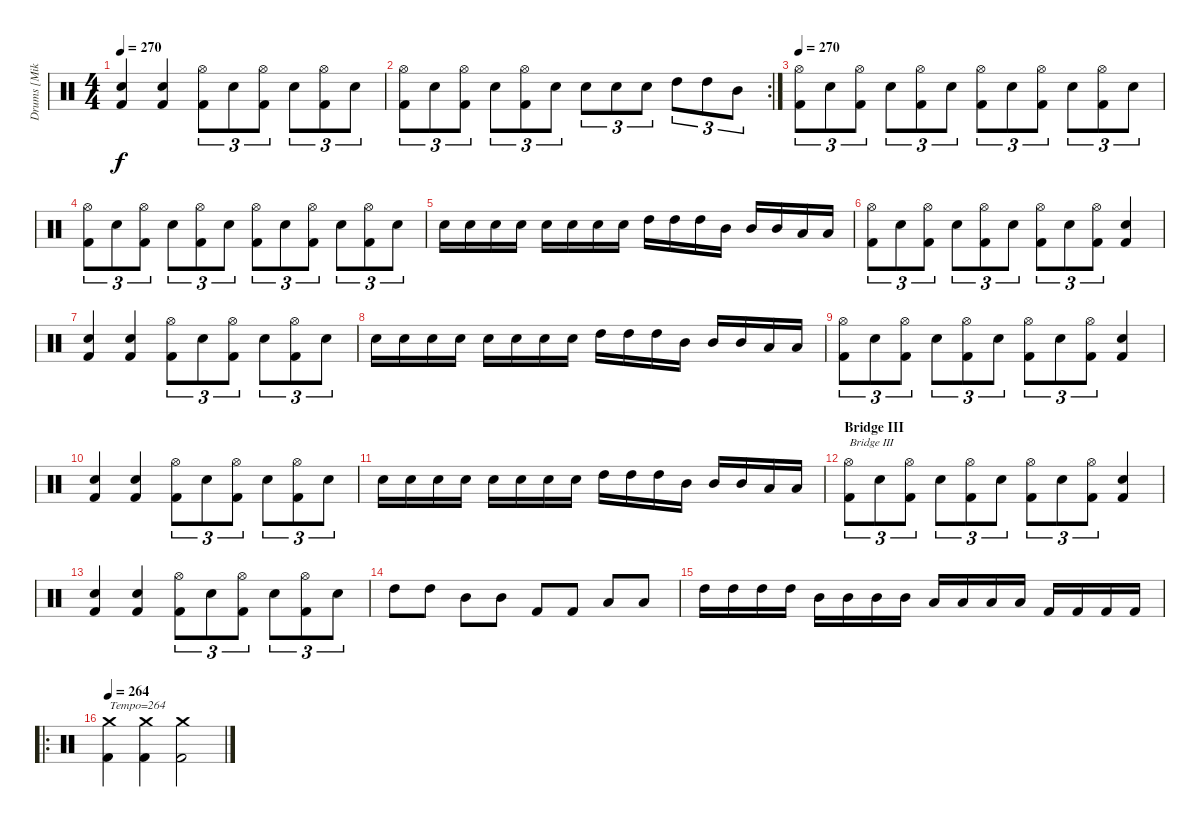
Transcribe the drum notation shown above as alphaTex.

\track ("Drums [Mike Smith]" "Drums [Mik") {instrument percussion}
\staff {score}
\articulation defaults
\ts (4 4)
\tempo 270
\clef neutral
\ks c
("Electric Snare (hit)" "Kick (hit) 2").4{dy f} ("Electric Snare (hit)" "Kick (hit) 2").4 ("Hi-Hat (open)" "Kick (hit) 2").8{tu (3 2)} "Electric Snare (hit)".8{tu (3 2)} ("Hi-Hat (open)" "Kick (hit) 2").8{tu (3 2)} "Electric Snare (hit)".8{tu (3 2)} ("Hi-Hat (open)" "Kick (hit) 2").8{tu (3 2)} "Electric Snare (hit)".8{tu (3 2)} |
\rc 2
("Hi-Hat (open)" "Kick (hit) 2").8{tu (3 2)} "Electric Snare (hit)".8{tu (3 2)} ("Hi-Hat (open)" "Kick (hit) 2").8{tu (3 2)} "Electric Snare (hit)".8{tu (3 2)} ("Hi-Hat (open)" "Kick (hit) 2").8{tu (3 2)} "Electric Snare (hit)".8{tu (3 2)} "Electric Snare (hit)".8{tu (3 2)} "Electric Snare (hit)".8{tu (3 2)} "Electric Snare (hit)".8{tu (3 2)} "High Tom (hit)".8{tu (3 2)} "High Tom (hit)".8{tu (3 2)} "Mid Tom (hit)".8{tu (3 2)} |
\tempo 270
("Hi-Hat (open)" "Kick (hit) 2").8{tu (3 2)} "Electric Snare (hit)".8{tu (3 2)} ("Hi-Hat (open)" "Kick (hit) 2").8{tu (3 2)} "Electric Snare (hit)".8{tu (3 2)} ("Hi-Hat (open)" "Kick (hit) 2").8{tu (3 2)} "Electric Snare (hit)".8{tu (3 2)} ("Hi-Hat (open)" "Kick (hit) 2").8{tu (3 2)} "Electric Snare (hit)".8{tu (3 2)} ("Hi-Hat (open)" "Kick (hit) 2").8{tu (3 2)} "Electric Snare (hit)".8{tu (3 2)} ("Hi-Hat (open)" "Kick (hit) 2").8{tu (3 2)} "Electric Snare (hit)".8{tu (3 2)} |
("Hi-Hat (open)" "Kick (hit) 2").8{tu (3 2)} "Electric Snare (hit)".8{tu (3 2)} ("Hi-Hat (open)" "Kick (hit) 2").8{tu (3 2)} "Electric Snare (hit)".8{tu (3 2)} ("Hi-Hat (open)" "Kick (hit) 2").8{tu (3 2)} "Electric Snare (hit)".8{tu (3 2)} ("Hi-Hat (open)" "Kick (hit) 2").8{tu (3 2)} "Electric Snare (hit)".8{tu (3 2)} ("Hi-Hat (open)" "Kick (hit) 2").8{tu (3 2)} "Electric Snare (hit)".8{tu (3 2)} ("Hi-Hat (open)" "Kick (hit) 2").8{tu (3 2)} "Electric Snare (hit)".8{tu (3 2)} |
"Electric Snare (hit)".16 "Electric Snare (hit)".16 "Electric Snare (hit)".16 "Electric Snare (hit)".16 "Electric Snare (hit)".16 "Electric Snare (hit)".16 "Electric Snare (hit)".16 "Electric Snare (hit)".16 "High Tom (hit)".16 "High Tom (hit)".16 "High Tom (hit)".16 "Mid Tom (hit)".16 "Mid Tom (hit)".16 "Mid Tom (hit)".16 "Low Tom (hit)".16 "Low Tom (hit)".16 |
("Hi-Hat (open)" "Kick (hit) 2").8{tu (3 2)} "Electric Snare (hit)".8{tu (3 2)} ("Hi-Hat (open)" "Kick (hit) 2").8{tu (3 2)} "Electric Snare (hit)".8{tu (3 2)} ("Hi-Hat (open)" "Kick (hit) 2").8{tu (3 2)} "Electric Snare (hit)".8{tu (3 2)} ("Hi-Hat (open)" "Kick (hit) 2").8{tu (3 2)} "Electric Snare (hit)".8{tu (3 2)} ("Hi-Hat (open)" "Kick (hit) 2").8{tu (3 2)} ("Electric Snare (hit)" "Kick (hit) 2").4 |
("Electric Snare (hit)" "Kick (hit) 2").4 ("Electric Snare (hit)" "Kick (hit) 2").4 ("Hi-Hat (open)" "Kick (hit) 2").8{tu (3 2)} "Electric Snare (hit)".8{tu (3 2)} ("Hi-Hat (open)" "Kick (hit) 2").8{tu (3 2)} "Electric Snare (hit)".8{tu (3 2)} ("Hi-Hat (open)" "Kick (hit) 2").8{tu (3 2)} "Electric Snare (hit)".8{tu (3 2)} |
"Electric Snare (hit)".16 "Electric Snare (hit)".16 "Electric Snare (hit)".16 "Electric Snare (hit)".16 "Electric Snare (hit)".16 "Electric Snare (hit)".16 "Electric Snare (hit)".16 "Electric Snare (hit)".16 "High Tom (hit)".16 "High Tom (hit)".16 "High Tom (hit)".16 "Mid Tom (hit)".16 "Mid Tom (hit)".16 "Mid Tom (hit)".16 "Low Tom (hit)".16 "Low Tom (hit)".16 |
("Hi-Hat (open)" "Kick (hit) 2").8{tu (3 2)} "Electric Snare (hit)".8{tu (3 2)} ("Hi-Hat (open)" "Kick (hit) 2").8{tu (3 2)} "Electric Snare (hit)".8{tu (3 2)} ("Hi-Hat (open)" "Kick (hit) 2").8{tu (3 2)} "Electric Snare (hit)".8{tu (3 2)} ("Hi-Hat (open)" "Kick (hit) 2").8{tu (3 2)} "Electric Snare (hit)".8{tu (3 2)} ("Hi-Hat (open)" "Kick (hit) 2").8{tu (3 2)} ("Electric Snare (hit)" "Kick (hit) 2").4 |
("Electric Snare (hit)" "Kick (hit) 2").4 ("Electric Snare (hit)" "Kick (hit) 2").4 ("Hi-Hat (open)" "Kick (hit) 2").8{tu (3 2)} "Electric Snare (hit)".8{tu (3 2)} ("Hi-Hat (open)" "Kick (hit) 2").8{tu (3 2)} "Electric Snare (hit)".8{tu (3 2)} ("Hi-Hat (open)" "Kick (hit) 2").8{tu (3 2)} "Electric Snare (hit)".8{tu (3 2)} |
"Electric Snare (hit)".16 "Electric Snare (hit)".16 "Electric Snare (hit)".16 "Electric Snare (hit)".16 "Electric Snare (hit)".16 "Electric Snare (hit)".16 "Electric Snare (hit)".16 "Electric Snare (hit)".16 "High Tom (hit)".16 "High Tom (hit)".16 "High Tom (hit)".16 "Mid Tom (hit)".16 "Mid Tom (hit)".16 "Mid Tom (hit)".16 "Low Tom (hit)".16 "Low Tom (hit)".16 |
\section ("" "Bridge III")
("Hi-Hat (open)" "Kick (hit) 2").8{tu (3 2) txt "Bridge III"} "Electric Snare (hit)".8{tu (3 2)} ("Hi-Hat (open)" "Kick (hit) 2").8{tu (3 2)} "Electric Snare (hit)".8{tu (3 2)} ("Hi-Hat (open)" "Kick (hit) 2").8{tu (3 2)} "Electric Snare (hit)".8{tu (3 2)} ("Hi-Hat (open)" "Kick (hit) 2").8{tu (3 2)} "Electric Snare (hit)".8{tu (3 2)} ("Hi-Hat (open)" "Kick (hit) 2").8{tu (3 2)} ("Electric Snare (hit)" "Kick (hit) 2").4 |
("Electric Snare (hit)" "Kick (hit) 2").4 ("Electric Snare (hit)" "Kick (hit) 2").4 ("Hi-Hat (open)" "Kick (hit) 2").8{tu (3 2)} "Electric Snare (hit)".8{tu (3 2)} ("Hi-Hat (open)" "Kick (hit) 2").8{tu (3 2)} "Electric Snare (hit)".8{tu (3 2)} ("Hi-Hat (open)" "Kick (hit) 2").8{tu (3 2)} "Electric Snare (hit)".8{tu (3 2)} |
"High Tom (hit)".8 "High Tom (hit)".8 "Mid Tom (hit)".8 "Mid Tom (hit)".8 "Kick (hit) 2".8 "Kick (hit) 2".8 "Low Tom (hit)".8 "Low Tom (hit)".8 |
"High Tom (hit)".16 "High Tom (hit)".16 "High Tom (hit)".16 "High Tom (hit)".16 "Mid Tom (hit)".16 "Mid Tom (hit)".16 "Mid Tom (hit)".16 "Mid Tom (hit)".16 "Low Tom (hit)".16 "Low Tom (hit)".16 "Low Tom (hit)".16 "Low Tom (hit)".16 "Kick (hit) 2".16 "Kick (hit) 2".16 "Kick (hit) 2".16 "Kick (hit) 2".16 |
\ro
\tempo 264
("Crash medium (hit)" "Kick (hit) 2").4{txt "Tempo=264"} ("Crash medium (hit)" "Kick (hit) 2").4 ("Crash medium (hit)" "Kick (hit) 2").2
